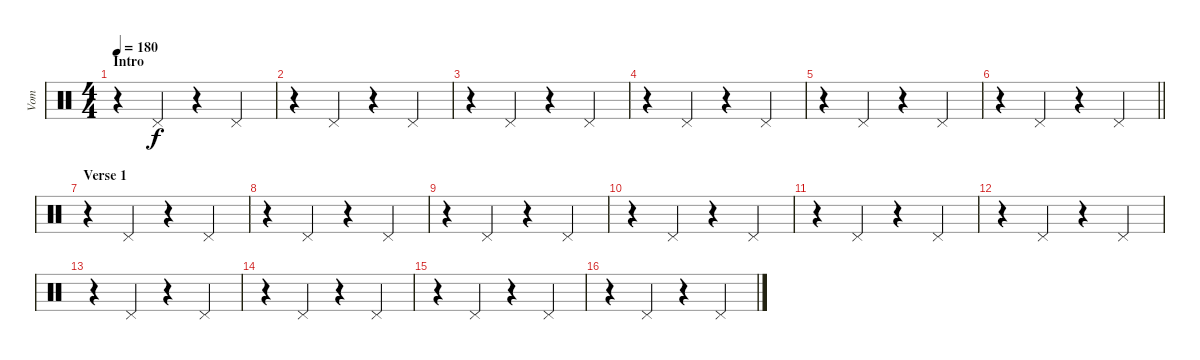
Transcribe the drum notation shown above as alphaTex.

\track ("Vom" "Vom") {instrument percussion}
\staff {score}
\articulation defaults
\ts (4 4)
\section ("" "Intro")
\tempo 180
\clef neutral
\ks c
r.4{dy f} "Pedal Hi-Hat (hit)".4 r.4 "Pedal Hi-Hat (hit)".4 |
r.4 "Pedal Hi-Hat (hit)".4 r.4 "Pedal Hi-Hat (hit)".4 |
r.4 "Pedal Hi-Hat (hit)".4 r.4 "Pedal Hi-Hat (hit)".4 |
r.4 "Pedal Hi-Hat (hit)".4 r.4 "Pedal Hi-Hat (hit)".4 |
r.4 "Pedal Hi-Hat (hit)".4 r.4 "Pedal Hi-Hat (hit)".4 |
\barLineRight lightlight
r.4 "Pedal Hi-Hat (hit)".4 r.4 "Pedal Hi-Hat (hit)".4 |
\section ("" "Verse 1")
r.4 "Pedal Hi-Hat (hit)".4 r.4 "Pedal Hi-Hat (hit)".4 |
r.4 "Pedal Hi-Hat (hit)".4 r.4 "Pedal Hi-Hat (hit)".4 |
r.4 "Pedal Hi-Hat (hit)".4 r.4 "Pedal Hi-Hat (hit)".4 |
r.4 "Pedal Hi-Hat (hit)".4 r.4 "Pedal Hi-Hat (hit)".4 |
r.4 "Pedal Hi-Hat (hit)".4 r.4 "Pedal Hi-Hat (hit)".4 |
r.4 "Pedal Hi-Hat (hit)".4 r.4 "Pedal Hi-Hat (hit)".4 |
r.4 "Pedal Hi-Hat (hit)".4 r.4 "Pedal Hi-Hat (hit)".4 |
r.4 "Pedal Hi-Hat (hit)".4 r.4 "Pedal Hi-Hat (hit)".4 |
r.4 "Pedal Hi-Hat (hit)".4 r.4 "Pedal Hi-Hat (hit)".4 |
r.4 "Pedal Hi-Hat (hit)".4 r.4 "Pedal Hi-Hat (hit)".4
